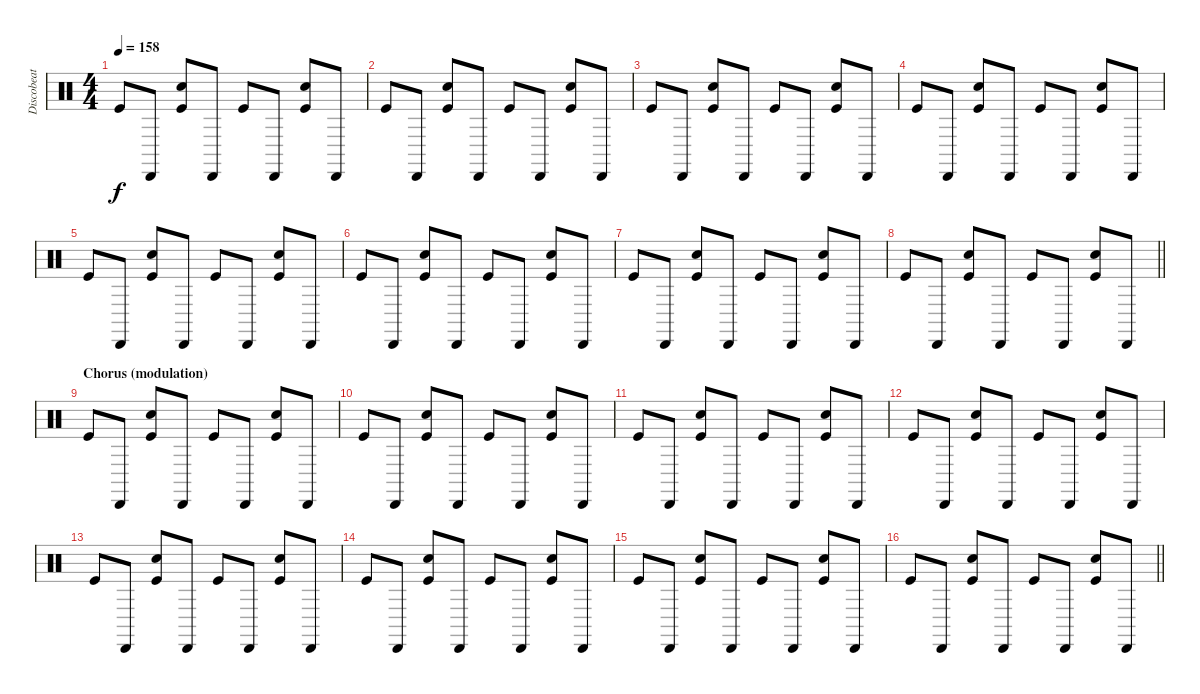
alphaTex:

\track ("Discobeat" "Discobeat") {instrument percussion}
\staff {score}
\articulation defaults
\ts (4 4)
\tempo 158
\clef neutral
\ks c "Kick (hit)".8{dy f} "Cabasa (hit)".8
("Kick (hit)" "Electric Snare (hit)").8 "Cabasa (hit)".8 "Kick (hit)".8 "Cabasa (hit)".8 ("Kick (hit)" "Electric Snare (hit)").8 "Cabasa (hit)".8 |
"Kick (hit)".8 "Cabasa (hit)".8 ("Kick (hit)" "Electric Snare (hit)").8 "Cabasa (hit)".8 "Kick (hit)".8 "Cabasa (hit)".8 ("Kick (hit)" "Electric Snare (hit)").8 "Cabasa (hit)".8 |
"Kick (hit)".8 "Cabasa (hit)".8 ("Kick (hit)" "Electric Snare (hit)").8 "Cabasa (hit)".8 "Kick (hit)".8 "Cabasa (hit)".8 ("Kick (hit)" "Electric Snare (hit)").8 "Cabasa (hit)".8 |
"Kick (hit)".8 "Cabasa (hit)".8 ("Kick (hit)" "Electric Snare (hit)").8 "Cabasa (hit)".8 "Kick (hit)".8 "Cabasa (hit)".8 ("Kick (hit)" "Electric Snare (hit)").8 "Cabasa (hit)".8 |
"Kick (hit)".8 "Cabasa (hit)".8 ("Kick (hit)" "Electric Snare (hit)").8 "Cabasa (hit)".8 "Kick (hit)".8 "Cabasa (hit)".8 ("Kick (hit)" "Electric Snare (hit)").8 "Cabasa (hit)".8 |
"Kick (hit)".8 "Cabasa (hit)".8 ("Kick (hit)" "Electric Snare (hit)").8 "Cabasa (hit)".8 "Kick (hit)".8 "Cabasa (hit)".8 ("Kick (hit)" "Electric Snare (hit)").8 "Cabasa (hit)".8 |
"Kick (hit)".8 "Cabasa (hit)".8 ("Kick (hit)" "Electric Snare (hit)").8 "Cabasa (hit)".8 "Kick (hit)".8 "Cabasa (hit)".8 ("Kick (hit)" "Electric Snare (hit)").8 "Cabasa (hit)".8 |
\barLineRight lightlight "Kick (hit)".8 "Cabasa (hit)".8
("Kick (hit)" "Electric Snare (hit)").8 "Cabasa (hit)".8 "Kick (hit)".8 "Cabasa (hit)".8 ("Kick (hit)" "Electric Snare (hit)").8 "Cabasa (hit)".8 |
\section ("" "Chorus (modulation)")
"Kick (hit)".8 "Cabasa (hit)".8 ("Kick (hit)" "Electric Snare (hit)").8 "Cabasa (hit)".8 "Kick (hit)".8 "Cabasa (hit)".8 ("Kick (hit)" "Electric Snare (hit)").8 "Cabasa (hit)".8 |
"Kick (hit)".8 "Cabasa (hit)".8 ("Kick (hit)" "Electric Snare (hit)").8 "Cabasa (hit)".8 "Kick (hit)".8 "Cabasa (hit)".8 ("Kick (hit)" "Electric Snare (hit)").8 "Cabasa (hit)".8 |
"Kick (hit)".8 "Cabasa (hit)".8 ("Kick (hit)" "Electric Snare (hit)").8 "Cabasa (hit)".8 "Kick (hit)".8 "Cabasa (hit)".8 ("Kick (hit)" "Electric Snare (hit)").8 "Cabasa (hit)".8 |
"Kick (hit)".8 "Cabasa (hit)".8 ("Kick (hit)" "Electric Snare (hit)").8 "Cabasa (hit)".8 "Kick (hit)".8 "Cabasa (hit)".8 ("Kick (hit)" "Electric Snare (hit)").8 "Cabasa (hit)".8 |
"Kick (hit)".8 "Cabasa (hit)".8 ("Kick (hit)" "Electric Snare (hit)").8 "Cabasa (hit)".8 "Kick (hit)".8 "Cabasa (hit)".8 ("Kick (hit)" "Electric Snare (hit)").8 "Cabasa (hit)".8 |
"Kick (hit)".8 "Cabasa (hit)".8 ("Kick (hit)" "Electric Snare (hit)").8 "Cabasa (hit)".8 "Kick (hit)".8 "Cabasa (hit)".8 ("Kick (hit)" "Electric Snare (hit)").8 "Cabasa (hit)".8 |
"Kick (hit)".8 "Cabasa (hit)".8 ("Kick (hit)" "Electric Snare (hit)").8 "Cabasa (hit)".8 "Kick (hit)".8 "Cabasa (hit)".8 ("Kick (hit)" "Electric Snare (hit)").8 "Cabasa (hit)".8 |
\barLineRight lightlight "Kick (hit)".8 "Cabasa (hit)".8
("Kick (hit)" "Electric Snare (hit)").8 "Cabasa (hit)".8 "Kick (hit)".8 "Cabasa (hit)".8 ("Kick (hit)" "Electric Snare (hit)").8 "Cabasa (hit)".8
